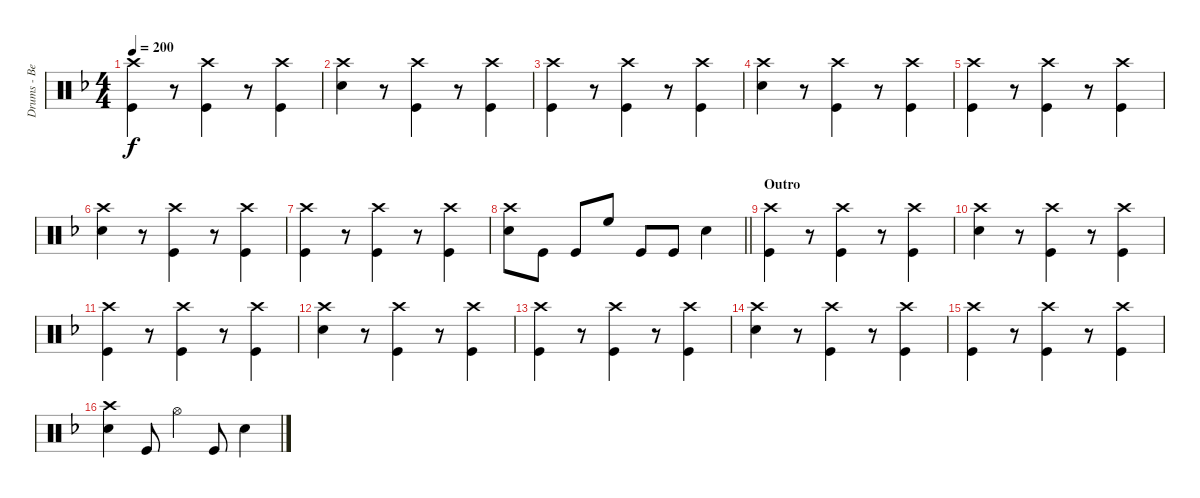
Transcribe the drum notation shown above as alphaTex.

\track ("Drums - Ben Johnston" "Drums - Be") {instrument percussion}
\staff {score}
\articulation defaults
\ts (4 4)
\tempo 200
\clef neutral
\ks f
("Crash high (hit)" "Kick (hit)").4{dy f volume 16} r.8 ("Crash high (hit)" "Kick (hit)").4 r.8 ("Crash high (hit)" "Kick (hit)").4 |
("Crash high (hit)" "Snare (hit) 2").4 r.8 ("Crash high (hit)" "Kick (hit)").4 r.8 ("Crash high (hit)" "Kick (hit)").4 |
("Crash high (hit)" "Kick (hit)").4 r.8 ("Crash high (hit)" "Kick (hit)").4 r.8 ("Crash high (hit)" "Kick (hit)").4 |
("Crash high (hit)" "Snare (hit) 2").4 r.8 ("Crash high (hit)" "Kick (hit)").4 r.8 ("Crash high (hit)" "Kick (hit)").4 |
("Crash high (hit)" "Kick (hit)").4 r.8 ("Crash high (hit)" "Kick (hit)").4 r.8 ("Crash high (hit)" "Kick (hit)").4 |
("Crash high (hit)" "Snare (hit) 2").4 r.8 ("Crash high (hit)" "Kick (hit)").4 r.8 ("Crash high (hit)" "Kick (hit)").4 |
("Crash high (hit)" "Kick (hit)").4 r.8 ("Crash high (hit)" "Kick (hit)").4 r.8 ("Crash high (hit)" "Kick (hit)").4 |
\barLineRight lightlight
("Crash high (hit)" "Snare (hit) 2").8 "Kick (hit)".8 "Kick (hit)".8 "High Floor Tom (hit)".8 "Kick (hit)".8 "Kick (hit)".8 "Snare (hit) 2".4 |
\section ("" "Outro")
("Crash high (hit)" "Kick (hit)").4{volume 14} r.8 ("Crash high (hit)" "Kick (hit)").4 r.8 ("Crash high (hit)" "Kick (hit)").4 |
("Crash high (hit)" "Snare (hit) 2").4 r.8 ("Crash high (hit)" "Kick (hit)").4 r.8 ("Crash high (hit)" "Kick (hit)").4 |
("Crash high (hit)" "Kick (hit)").4 r.8 ("Crash high (hit)" "Kick (hit)").4 r.8 ("Crash high (hit)" "Kick (hit)").4 |
("Crash high (hit)" "Snare (hit) 2").4 r.8 ("Crash high (hit)" "Kick (hit)").4 r.8 ("Crash high (hit)" "Kick (hit)").4 |
("Crash high (hit)" "Kick (hit)").4 r.8 ("Crash high (hit)" "Kick (hit)").4 r.8 ("Crash high (hit)" "Kick (hit)").4 |
("Crash high (hit)" "Snare (hit) 2").4 r.8 ("Crash high (hit)" "Kick (hit)").4 r.8 ("Crash high (hit)" "Kick (hit)").4 |
("Crash high (hit)" "Kick (hit)").4 r.8 ("Crash high (hit)" "Kick (hit)").4 r.8 ("Crash high (hit)" "Kick (hit)").4 |
("Crash high (hit)" "Snare (hit) 2").4 "Kick (hit)".8 "Hi-Hat (open)".4 "Kick (hit)".8 "Snare (hit) 2".4
